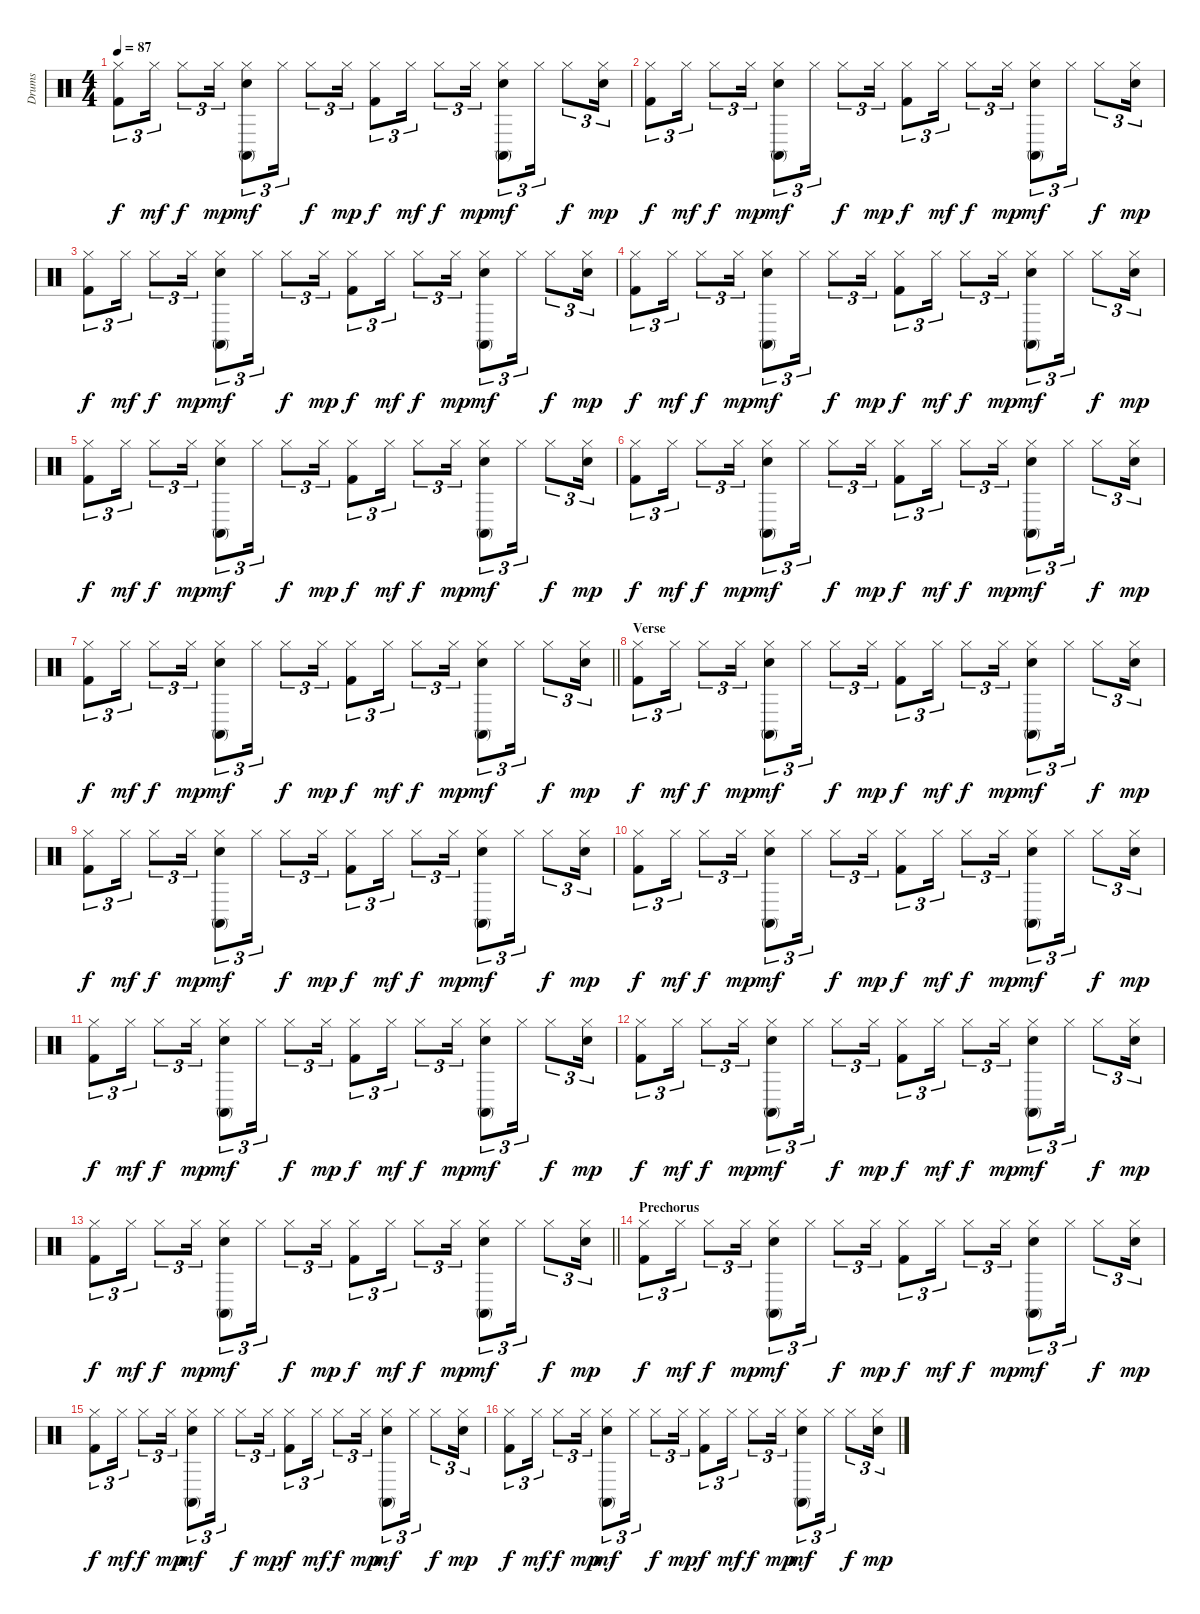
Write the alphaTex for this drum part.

\track ("Drums" "Drums") {instrument percussion}
\staff {score}
\articulation defaults
\ts (4 4)
\tempo 87
\clef neutral
\ks c
("Hi-Hat (closed)" "Kick (hit) 2").8{tu (3 2) dy f} "Hi-Hat (closed)".16{tu (3 2) dy mf} "Hi-Hat (closed)".8{tu (3 2) dy f} "Hi-Hat (closed)".16{tu (3 2) dy mp} ("Conga high (mute)" "Hi-Hat (closed)" "Electric Snare (hit)").8{tu (3 2) dy mf} "Hi-Hat (closed)".16{tu (3 2)} "Hi-Hat (closed)".8{tu (3 2) dy f} "Hi-Hat (closed)".16{tu (3 2) dy mp} ("Hi-Hat (closed)" "Kick (hit) 2").8{tu (3 2) dy f} "Hi-Hat (closed)".16{tu (3 2) dy mf} "Hi-Hat (closed)".8{tu (3 2) dy f} "Hi-Hat (closed)".16{tu (3 2) dy mp} ("Conga high (mute)" "Hi-Hat (closed)" "Electric Snare (hit)").8{tu (3 2) dy mf} "Hi-Hat (closed)".16{tu (3 2)} "Hi-Hat (closed)".8{tu (3 2) dy f} ("Hi-Hat (closed)" "Electric Snare (hit)").16{tu (3 2) dy mp} |
("Hi-Hat (closed)" "Kick (hit) 2").8{tu (3 2) dy f} "Hi-Hat (closed)".16{tu (3 2) dy mf} "Hi-Hat (closed)".8{tu (3 2) dy f} "Hi-Hat (closed)".16{tu (3 2) dy mp} ("Conga high (mute)" "Hi-Hat (closed)" "Electric Snare (hit)").8{tu (3 2) dy mf} "Hi-Hat (closed)".16{tu (3 2)} "Hi-Hat (closed)".8{tu (3 2) dy f} "Hi-Hat (closed)".16{tu (3 2) dy mp} ("Hi-Hat (closed)" "Kick (hit) 2").8{tu (3 2) dy f} "Hi-Hat (closed)".16{tu (3 2) dy mf} "Hi-Hat (closed)".8{tu (3 2) dy f} "Hi-Hat (closed)".16{tu (3 2) dy mp} ("Conga high (mute)" "Hi-Hat (closed)" "Electric Snare (hit)").8{tu (3 2) dy mf} "Hi-Hat (closed)".16{tu (3 2)} "Hi-Hat (closed)".8{tu (3 2) dy f} ("Hi-Hat (closed)" "Electric Snare (hit)").16{tu (3 2) dy mp} |
("Hi-Hat (closed)" "Kick (hit) 2").8{tu (3 2) dy f} "Hi-Hat (closed)".16{tu (3 2) dy mf} "Hi-Hat (closed)".8{tu (3 2) dy f} "Hi-Hat (closed)".16{tu (3 2) dy mp} ("Conga high (mute)" "Hi-Hat (closed)" "Electric Snare (hit)").8{tu (3 2) dy mf} "Hi-Hat (closed)".16{tu (3 2)} "Hi-Hat (closed)".8{tu (3 2) dy f} "Hi-Hat (closed)".16{tu (3 2) dy mp} ("Hi-Hat (closed)" "Kick (hit) 2").8{tu (3 2) dy f} "Hi-Hat (closed)".16{tu (3 2) dy mf} "Hi-Hat (closed)".8{tu (3 2) dy f} "Hi-Hat (closed)".16{tu (3 2) dy mp} ("Conga high (mute)" "Hi-Hat (closed)" "Electric Snare (hit)").8{tu (3 2) dy mf} "Hi-Hat (closed)".16{tu (3 2)} "Hi-Hat (closed)".8{tu (3 2) dy f} ("Hi-Hat (closed)" "Electric Snare (hit)").16{tu (3 2) dy mp} |
("Hi-Hat (closed)" "Kick (hit) 2").8{tu (3 2) dy f} "Hi-Hat (closed)".16{tu (3 2) dy mf} "Hi-Hat (closed)".8{tu (3 2) dy f} "Hi-Hat (closed)".16{tu (3 2) dy mp} ("Conga high (mute)" "Hi-Hat (closed)" "Electric Snare (hit)").8{tu (3 2) dy mf} "Hi-Hat (closed)".16{tu (3 2)} "Hi-Hat (closed)".8{tu (3 2) dy f} "Hi-Hat (closed)".16{tu (3 2) dy mp} ("Hi-Hat (closed)" "Kick (hit) 2").8{tu (3 2) dy f} "Hi-Hat (closed)".16{tu (3 2) dy mf} "Hi-Hat (closed)".8{tu (3 2) dy f} "Hi-Hat (closed)".16{tu (3 2) dy mp} ("Conga high (mute)" "Hi-Hat (closed)" "Electric Snare (hit)").8{tu (3 2) dy mf} "Hi-Hat (closed)".16{tu (3 2)} "Hi-Hat (closed)".8{tu (3 2) dy f} ("Hi-Hat (closed)" "Electric Snare (hit)").16{tu (3 2) dy mp} |
("Hi-Hat (closed)" "Kick (hit) 2").8{tu (3 2) dy f} "Hi-Hat (closed)".16{tu (3 2) dy mf} "Hi-Hat (closed)".8{tu (3 2) dy f} "Hi-Hat (closed)".16{tu (3 2) dy mp} ("Conga high (mute)" "Hi-Hat (closed)" "Electric Snare (hit)").8{tu (3 2) dy mf} "Hi-Hat (closed)".16{tu (3 2)} "Hi-Hat (closed)".8{tu (3 2) dy f} "Hi-Hat (closed)".16{tu (3 2) dy mp} ("Hi-Hat (closed)" "Kick (hit) 2").8{tu (3 2) dy f} "Hi-Hat (closed)".16{tu (3 2) dy mf} "Hi-Hat (closed)".8{tu (3 2) dy f} "Hi-Hat (closed)".16{tu (3 2) dy mp} ("Conga high (mute)" "Hi-Hat (closed)" "Electric Snare (hit)").8{tu (3 2) dy mf} "Hi-Hat (closed)".16{tu (3 2)} "Hi-Hat (closed)".8{tu (3 2) dy f} ("Hi-Hat (closed)" "Electric Snare (hit)").16{tu (3 2) dy mp} |
("Hi-Hat (closed)" "Kick (hit) 2").8{tu (3 2) dy f} "Hi-Hat (closed)".16{tu (3 2) dy mf} "Hi-Hat (closed)".8{tu (3 2) dy f} "Hi-Hat (closed)".16{tu (3 2) dy mp} ("Conga high (mute)" "Hi-Hat (closed)" "Electric Snare (hit)").8{tu (3 2) dy mf} "Hi-Hat (closed)".16{tu (3 2)} "Hi-Hat (closed)".8{tu (3 2) dy f} "Hi-Hat (closed)".16{tu (3 2) dy mp} ("Hi-Hat (closed)" "Kick (hit) 2").8{tu (3 2) dy f} "Hi-Hat (closed)".16{tu (3 2) dy mf} "Hi-Hat (closed)".8{tu (3 2) dy f} "Hi-Hat (closed)".16{tu (3 2) dy mp} ("Conga high (mute)" "Hi-Hat (closed)" "Electric Snare (hit)").8{tu (3 2) dy mf} "Hi-Hat (closed)".16{tu (3 2)} "Hi-Hat (closed)".8{tu (3 2) dy f} ("Hi-Hat (closed)" "Electric Snare (hit)").16{tu (3 2) dy mp} |
\barLineRight lightlight
("Hi-Hat (closed)" "Kick (hit) 2").8{tu (3 2) dy f} "Hi-Hat (closed)".16{tu (3 2) dy mf} "Hi-Hat (closed)".8{tu (3 2) dy f} "Hi-Hat (closed)".16{tu (3 2) dy mp} ("Conga high (mute)" "Hi-Hat (closed)" "Electric Snare (hit)").8{tu (3 2) dy mf} "Hi-Hat (closed)".16{tu (3 2)} "Hi-Hat (closed)".8{tu (3 2) dy f} "Hi-Hat (closed)".16{tu (3 2) dy mp} ("Hi-Hat (closed)" "Kick (hit) 2").8{tu (3 2) dy f} "Hi-Hat (closed)".16{tu (3 2) dy mf} "Hi-Hat (closed)".8{tu (3 2) dy f} "Hi-Hat (closed)".16{tu (3 2) dy mp} ("Conga high (mute)" "Hi-Hat (closed)" "Electric Snare (hit)").8{tu (3 2) dy mf} "Hi-Hat (closed)".16{tu (3 2)} "Hi-Hat (closed)".8{tu (3 2) dy f} ("Hi-Hat (closed)" "Electric Snare (hit)").16{tu (3 2) dy mp} |
\section ("" "Verse")
("Hi-Hat (closed)" "Kick (hit) 2").8{tu (3 2) dy f} "Hi-Hat (closed)".16{tu (3 2) dy mf} "Hi-Hat (closed)".8{tu (3 2) dy f} "Hi-Hat (closed)".16{tu (3 2) dy mp} ("Conga high (mute)" "Hi-Hat (closed)" "Electric Snare (hit)").8{tu (3 2) dy mf} "Hi-Hat (closed)".16{tu (3 2)} "Hi-Hat (closed)".8{tu (3 2) dy f} "Hi-Hat (closed)".16{tu (3 2) dy mp} ("Hi-Hat (closed)" "Kick (hit) 2").8{tu (3 2) dy f} "Hi-Hat (closed)".16{tu (3 2) dy mf} "Hi-Hat (closed)".8{tu (3 2) dy f} "Hi-Hat (closed)".16{tu (3 2) dy mp} ("Conga high (mute)" "Hi-Hat (closed)" "Electric Snare (hit)").8{tu (3 2) dy mf} "Hi-Hat (closed)".16{tu (3 2)} "Hi-Hat (closed)".8{tu (3 2) dy f} ("Hi-Hat (closed)" "Electric Snare (hit)").16{tu (3 2) dy mp} |
("Hi-Hat (closed)" "Kick (hit) 2").8{tu (3 2) dy f} "Hi-Hat (closed)".16{tu (3 2) dy mf} "Hi-Hat (closed)".8{tu (3 2) dy f} "Hi-Hat (closed)".16{tu (3 2) dy mp} ("Conga high (mute)" "Hi-Hat (closed)" "Electric Snare (hit)").8{tu (3 2) dy mf} "Hi-Hat (closed)".16{tu (3 2)} "Hi-Hat (closed)".8{tu (3 2) dy f} "Hi-Hat (closed)".16{tu (3 2) dy mp} ("Hi-Hat (closed)" "Kick (hit) 2").8{tu (3 2) dy f} "Hi-Hat (closed)".16{tu (3 2) dy mf} "Hi-Hat (closed)".8{tu (3 2) dy f} "Hi-Hat (closed)".16{tu (3 2) dy mp} ("Conga high (mute)" "Hi-Hat (closed)" "Electric Snare (hit)").8{tu (3 2) dy mf} "Hi-Hat (closed)".16{tu (3 2)} "Hi-Hat (closed)".8{tu (3 2) dy f} ("Hi-Hat (closed)" "Electric Snare (hit)").16{tu (3 2) dy mp} |
("Hi-Hat (closed)" "Kick (hit) 2").8{tu (3 2) dy f} "Hi-Hat (closed)".16{tu (3 2) dy mf} "Hi-Hat (closed)".8{tu (3 2) dy f} "Hi-Hat (closed)".16{tu (3 2) dy mp} ("Conga high (mute)" "Hi-Hat (closed)" "Electric Snare (hit)").8{tu (3 2) dy mf} "Hi-Hat (closed)".16{tu (3 2)} "Hi-Hat (closed)".8{tu (3 2) dy f} "Hi-Hat (closed)".16{tu (3 2) dy mp} ("Hi-Hat (closed)" "Kick (hit) 2").8{tu (3 2) dy f} "Hi-Hat (closed)".16{tu (3 2) dy mf} "Hi-Hat (closed)".8{tu (3 2) dy f} "Hi-Hat (closed)".16{tu (3 2) dy mp} ("Conga high (mute)" "Hi-Hat (closed)" "Electric Snare (hit)").8{tu (3 2) dy mf} "Hi-Hat (closed)".16{tu (3 2)} "Hi-Hat (closed)".8{tu (3 2) dy f} ("Hi-Hat (closed)" "Electric Snare (hit)").16{tu (3 2) dy mp} |
("Hi-Hat (closed)" "Kick (hit) 2").8{tu (3 2) dy f} "Hi-Hat (closed)".16{tu (3 2) dy mf} "Hi-Hat (closed)".8{tu (3 2) dy f} "Hi-Hat (closed)".16{tu (3 2) dy mp} ("Conga high (mute)" "Hi-Hat (closed)" "Electric Snare (hit)").8{tu (3 2) dy mf} "Hi-Hat (closed)".16{tu (3 2)} "Hi-Hat (closed)".8{tu (3 2) dy f} "Hi-Hat (closed)".16{tu (3 2) dy mp} ("Hi-Hat (closed)" "Kick (hit) 2").8{tu (3 2) dy f} "Hi-Hat (closed)".16{tu (3 2) dy mf} "Hi-Hat (closed)".8{tu (3 2) dy f} "Hi-Hat (closed)".16{tu (3 2) dy mp} ("Conga high (mute)" "Hi-Hat (closed)" "Electric Snare (hit)").8{tu (3 2) dy mf} "Hi-Hat (closed)".16{tu (3 2)} "Hi-Hat (closed)".8{tu (3 2) dy f} ("Hi-Hat (closed)" "Electric Snare (hit)").16{tu (3 2) dy mp} |
("Hi-Hat (closed)" "Kick (hit) 2").8{tu (3 2) dy f} "Hi-Hat (closed)".16{tu (3 2) dy mf} "Hi-Hat (closed)".8{tu (3 2) dy f} "Hi-Hat (closed)".16{tu (3 2) dy mp} ("Conga high (mute)" "Hi-Hat (closed)" "Electric Snare (hit)").8{tu (3 2) dy mf} "Hi-Hat (closed)".16{tu (3 2)} "Hi-Hat (closed)".8{tu (3 2) dy f} "Hi-Hat (closed)".16{tu (3 2) dy mp} ("Hi-Hat (closed)" "Kick (hit) 2").8{tu (3 2) dy f} "Hi-Hat (closed)".16{tu (3 2) dy mf} "Hi-Hat (closed)".8{tu (3 2) dy f} "Hi-Hat (closed)".16{tu (3 2) dy mp} ("Conga high (mute)" "Hi-Hat (closed)" "Electric Snare (hit)").8{tu (3 2) dy mf} "Hi-Hat (closed)".16{tu (3 2)} "Hi-Hat (closed)".8{tu (3 2) dy f} ("Hi-Hat (closed)" "Electric Snare (hit)").16{tu (3 2) dy mp} |
\barLineRight lightlight
("Hi-Hat (closed)" "Kick (hit) 2").8{tu (3 2) dy f} "Hi-Hat (closed)".16{tu (3 2) dy mf} "Hi-Hat (closed)".8{tu (3 2) dy f} "Hi-Hat (closed)".16{tu (3 2) dy mp} ("Conga high (mute)" "Hi-Hat (closed)" "Electric Snare (hit)").8{tu (3 2) dy mf} "Hi-Hat (closed)".16{tu (3 2)} "Hi-Hat (closed)".8{tu (3 2) dy f} "Hi-Hat (closed)".16{tu (3 2) dy mp} ("Hi-Hat (closed)" "Kick (hit) 2").8{tu (3 2) dy f} "Hi-Hat (closed)".16{tu (3 2) dy mf} "Hi-Hat (closed)".8{tu (3 2) dy f} "Hi-Hat (closed)".16{tu (3 2) dy mp} ("Conga high (mute)" "Hi-Hat (closed)" "Electric Snare (hit)").8{tu (3 2) dy mf} "Hi-Hat (closed)".16{tu (3 2)} "Hi-Hat (closed)".8{tu (3 2) dy f} ("Hi-Hat (closed)" "Electric Snare (hit)").16{tu (3 2) dy mp} |
\section ("" "Prechorus")
("Hi-Hat (closed)" "Kick (hit) 2").8{tu (3 2) dy f} "Hi-Hat (closed)".16{tu (3 2) dy mf} "Hi-Hat (closed)".8{tu (3 2) dy f} "Hi-Hat (closed)".16{tu (3 2) dy mp} ("Conga high (mute)" "Hi-Hat (closed)" "Electric Snare (hit)").8{tu (3 2) dy mf} "Hi-Hat (closed)".16{tu (3 2)} "Hi-Hat (closed)".8{tu (3 2) dy f} "Hi-Hat (closed)".16{tu (3 2) dy mp} ("Hi-Hat (closed)" "Kick (hit) 2").8{tu (3 2) dy f} "Hi-Hat (closed)".16{tu (3 2) dy mf} "Hi-Hat (closed)".8{tu (3 2) dy f} "Hi-Hat (closed)".16{tu (3 2) dy mp} ("Conga high (mute)" "Hi-Hat (closed)" "Electric Snare (hit)").8{tu (3 2) dy mf} "Hi-Hat (closed)".16{tu (3 2)} "Hi-Hat (closed)".8{tu (3 2) dy f} ("Hi-Hat (closed)" "Electric Snare (hit)").16{tu (3 2) dy mp} |
("Hi-Hat (closed)" "Kick (hit) 2").8{tu (3 2) dy f} "Hi-Hat (closed)".16{tu (3 2) dy mf} "Hi-Hat (closed)".8{tu (3 2) dy f} "Hi-Hat (closed)".16{tu (3 2) dy mp} ("Conga high (mute)" "Hi-Hat (closed)" "Electric Snare (hit)").8{tu (3 2) dy mf} "Hi-Hat (closed)".16{tu (3 2)} "Hi-Hat (closed)".8{tu (3 2) dy f} "Hi-Hat (closed)".16{tu (3 2) dy mp} ("Hi-Hat (closed)" "Kick (hit) 2").8{tu (3 2) dy f} "Hi-Hat (closed)".16{tu (3 2) dy mf} "Hi-Hat (closed)".8{tu (3 2) dy f} "Hi-Hat (closed)".16{tu (3 2) dy mp} ("Conga high (mute)" "Hi-Hat (closed)" "Electric Snare (hit)").8{tu (3 2) dy mf} "Hi-Hat (closed)".16{tu (3 2)} "Hi-Hat (closed)".8{tu (3 2) dy f} ("Hi-Hat (closed)" "Electric Snare (hit)").16{tu (3 2) dy mp} |
("Hi-Hat (closed)" "Kick (hit) 2").8{tu (3 2) dy f} "Hi-Hat (closed)".16{tu (3 2) dy mf} "Hi-Hat (closed)".8{tu (3 2) dy f} "Hi-Hat (closed)".16{tu (3 2) dy mp} ("Conga high (mute)" "Hi-Hat (closed)" "Electric Snare (hit)").8{tu (3 2) dy mf} "Hi-Hat (closed)".16{tu (3 2)} "Hi-Hat (closed)".8{tu (3 2) dy f} "Hi-Hat (closed)".16{tu (3 2) dy mp} ("Hi-Hat (closed)" "Kick (hit) 2").8{tu (3 2) dy f} "Hi-Hat (closed)".16{tu (3 2) dy mf} "Hi-Hat (closed)".8{tu (3 2) dy f} "Hi-Hat (closed)".16{tu (3 2) dy mp} ("Conga high (mute)" "Hi-Hat (closed)" "Electric Snare (hit)").8{tu (3 2) dy mf} "Hi-Hat (closed)".16{tu (3 2)} "Hi-Hat (closed)".8{tu (3 2) dy f} ("Hi-Hat (closed)" "Electric Snare (hit)").16{tu (3 2) dy mp}
